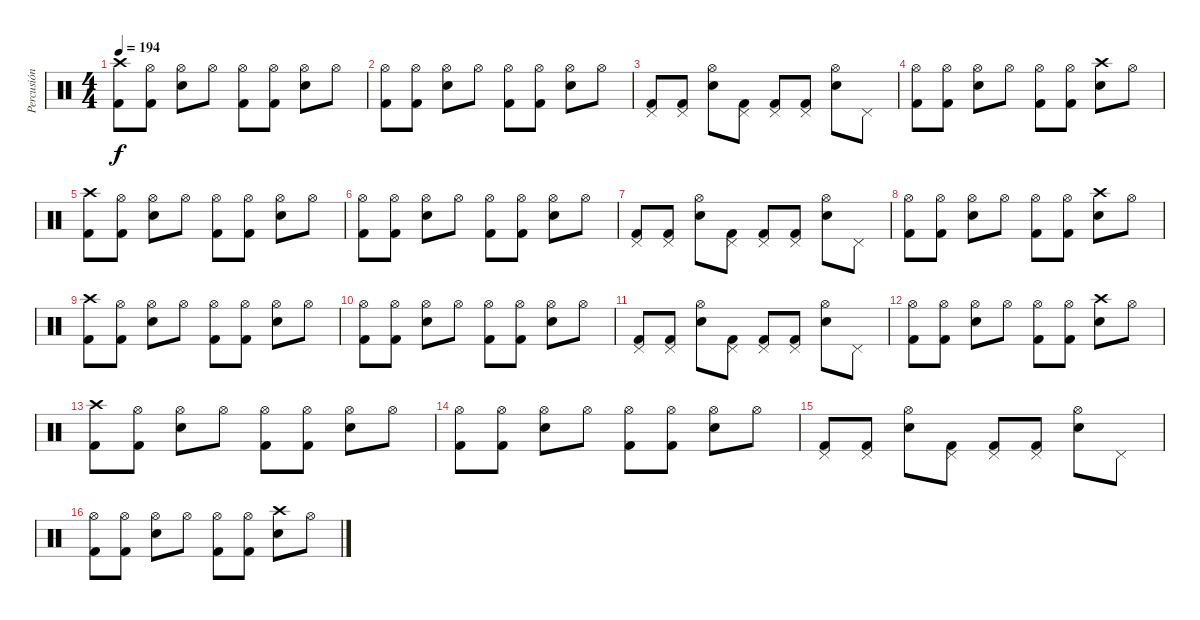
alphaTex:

\track ("Percusión" "Percusión") {instrument percussion}
\staff {score}
\articulation defaults
\ts (4 4)
\tempo 194
\clef neutral
\ks c
("Crash high (hit)" "Kick (hit) 2").8{dy f} ("Hi-Hat (open)" "Kick (hit) 2").8 ("Hi-Hat (open)" "Snare (hit) 2").8 "Hi-Hat (open)".8 ("Hi-Hat (open)" "Kick (hit) 2").8 ("Hi-Hat (open)" "Kick (hit) 2").8 ("Hi-Hat (open)" "Snare (hit) 2").8 "Hi-Hat (open)".8 |
("Hi-Hat (open)" "Kick (hit) 2").8 ("Hi-Hat (open)" "Kick (hit) 2").8 ("Hi-Hat (open)" "Snare (hit) 2").8 "Hi-Hat (open)".8 ("Hi-Hat (open)" "Kick (hit) 2").8 ("Hi-Hat (open)" "Kick (hit) 2").8 ("Hi-Hat (open)" "Snare (hit) 2").8 "Hi-Hat (open)".8 |
("Pedal Hi-Hat (hit)" "Kick (hit) 2").8 ("Pedal Hi-Hat (hit)" "Kick (hit) 2").8 ("Hi-Hat (open)" "Snare (hit) 2").8 ("Pedal Hi-Hat (hit)" "Kick (hit) 2").8 ("Pedal Hi-Hat (hit)" "Kick (hit) 2").8 ("Pedal Hi-Hat (hit)" "Kick (hit) 2").8 ("Hi-Hat (open)" "Snare (hit) 2").8 "Pedal Hi-Hat (hit)".8 |
("Hi-Hat (open)" "Kick (hit) 2").8 ("Hi-Hat (open)" "Kick (hit) 2").8 ("Hi-Hat (open)" "Snare (hit) 2").8 "Hi-Hat (open)".8 ("Hi-Hat (open)" "Kick (hit) 2").8 ("Hi-Hat (open)" "Kick (hit) 2").8 ("Crash high (hit)" "Snare (hit) 2").8 "Hi-Hat (open)".8 |
("Crash high (hit)" "Kick (hit) 2").8 ("Hi-Hat (open)" "Kick (hit) 2").8 ("Hi-Hat (open)" "Snare (hit) 2").8 "Hi-Hat (open)".8 ("Hi-Hat (open)" "Kick (hit) 2").8 ("Hi-Hat (open)" "Kick (hit) 2").8 ("Hi-Hat (open)" "Snare (hit) 2").8 "Hi-Hat (open)".8 |
("Hi-Hat (open)" "Kick (hit) 2").8 ("Hi-Hat (open)" "Kick (hit) 2").8 ("Hi-Hat (open)" "Snare (hit) 2").8 "Hi-Hat (open)".8 ("Hi-Hat (open)" "Kick (hit) 2").8 ("Hi-Hat (open)" "Kick (hit) 2").8 ("Hi-Hat (open)" "Snare (hit) 2").8 "Hi-Hat (open)".8 |
("Pedal Hi-Hat (hit)" "Kick (hit) 2").8 ("Pedal Hi-Hat (hit)" "Kick (hit) 2").8 ("Hi-Hat (open)" "Snare (hit) 2").8 ("Pedal Hi-Hat (hit)" "Kick (hit) 2").8 ("Pedal Hi-Hat (hit)" "Kick (hit) 2").8 ("Pedal Hi-Hat (hit)" "Kick (hit) 2").8 ("Hi-Hat (open)" "Snare (hit) 2").8 "Pedal Hi-Hat (hit)".8 |
("Hi-Hat (open)" "Kick (hit) 2").8 ("Hi-Hat (open)" "Kick (hit) 2").8 ("Hi-Hat (open)" "Snare (hit) 2").8 "Hi-Hat (open)".8 ("Hi-Hat (open)" "Kick (hit) 2").8 ("Hi-Hat (open)" "Kick (hit) 2").8 ("Crash high (hit)" "Snare (hit) 2").8 "Hi-Hat (open)".8 |
("Crash high (hit)" "Kick (hit) 2").8 ("Hi-Hat (open)" "Kick (hit) 2").8 ("Hi-Hat (open)" "Snare (hit) 2").8 "Hi-Hat (open)".8 ("Hi-Hat (open)" "Kick (hit) 2").8 ("Hi-Hat (open)" "Kick (hit) 2").8 ("Hi-Hat (open)" "Snare (hit) 2").8 "Hi-Hat (open)".8 |
("Hi-Hat (open)" "Kick (hit) 2").8 ("Hi-Hat (open)" "Kick (hit) 2").8 ("Hi-Hat (open)" "Snare (hit) 2").8 "Hi-Hat (open)".8 ("Hi-Hat (open)" "Kick (hit) 2").8 ("Hi-Hat (open)" "Kick (hit) 2").8 ("Hi-Hat (open)" "Snare (hit) 2").8 "Hi-Hat (open)".8 |
("Pedal Hi-Hat (hit)" "Kick (hit) 2").8 ("Pedal Hi-Hat (hit)" "Kick (hit) 2").8 ("Hi-Hat (open)" "Snare (hit) 2").8 ("Pedal Hi-Hat (hit)" "Kick (hit) 2").8 ("Pedal Hi-Hat (hit)" "Kick (hit) 2").8 ("Pedal Hi-Hat (hit)" "Kick (hit) 2").8 ("Hi-Hat (open)" "Snare (hit) 2").8 "Pedal Hi-Hat (hit)".8 |
("Hi-Hat (open)" "Kick (hit) 2").8 ("Hi-Hat (open)" "Kick (hit) 2").8 ("Hi-Hat (open)" "Snare (hit) 2").8 "Hi-Hat (open)".8 ("Hi-Hat (open)" "Kick (hit) 2").8 ("Hi-Hat (open)" "Kick (hit) 2").8 ("Crash high (hit)" "Snare (hit) 2").8 "Hi-Hat (open)".8 |
("Crash high (hit)" "Kick (hit) 2").8 ("Hi-Hat (open)" "Kick (hit) 2").8 ("Hi-Hat (open)" "Snare (hit) 2").8 "Hi-Hat (open)".8 ("Hi-Hat (open)" "Kick (hit) 2").8 ("Hi-Hat (open)" "Kick (hit) 2").8 ("Hi-Hat (open)" "Snare (hit) 2").8 "Hi-Hat (open)".8 |
("Hi-Hat (open)" "Kick (hit) 2").8 ("Hi-Hat (open)" "Kick (hit) 2").8 ("Hi-Hat (open)" "Snare (hit) 2").8 "Hi-Hat (open)".8 ("Hi-Hat (open)" "Kick (hit) 2").8 ("Hi-Hat (open)" "Kick (hit) 2").8 ("Hi-Hat (open)" "Snare (hit) 2").8 "Hi-Hat (open)".8 |
("Pedal Hi-Hat (hit)" "Kick (hit) 2").8 ("Pedal Hi-Hat (hit)" "Kick (hit) 2").8 ("Hi-Hat (open)" "Snare (hit) 2").8 ("Pedal Hi-Hat (hit)" "Kick (hit) 2").8 ("Pedal Hi-Hat (hit)" "Kick (hit) 2").8 ("Pedal Hi-Hat (hit)" "Kick (hit) 2").8 ("Hi-Hat (open)" "Snare (hit) 2").8 "Pedal Hi-Hat (hit)".8 |
("Hi-Hat (open)" "Kick (hit) 2").8 ("Hi-Hat (open)" "Kick (hit) 2").8 ("Hi-Hat (open)" "Snare (hit) 2").8 "Hi-Hat (open)".8 ("Hi-Hat (open)" "Kick (hit) 2").8 ("Hi-Hat (open)" "Kick (hit) 2").8 ("Crash high (hit)" "Snare (hit) 2").8 "Hi-Hat (open)".8
